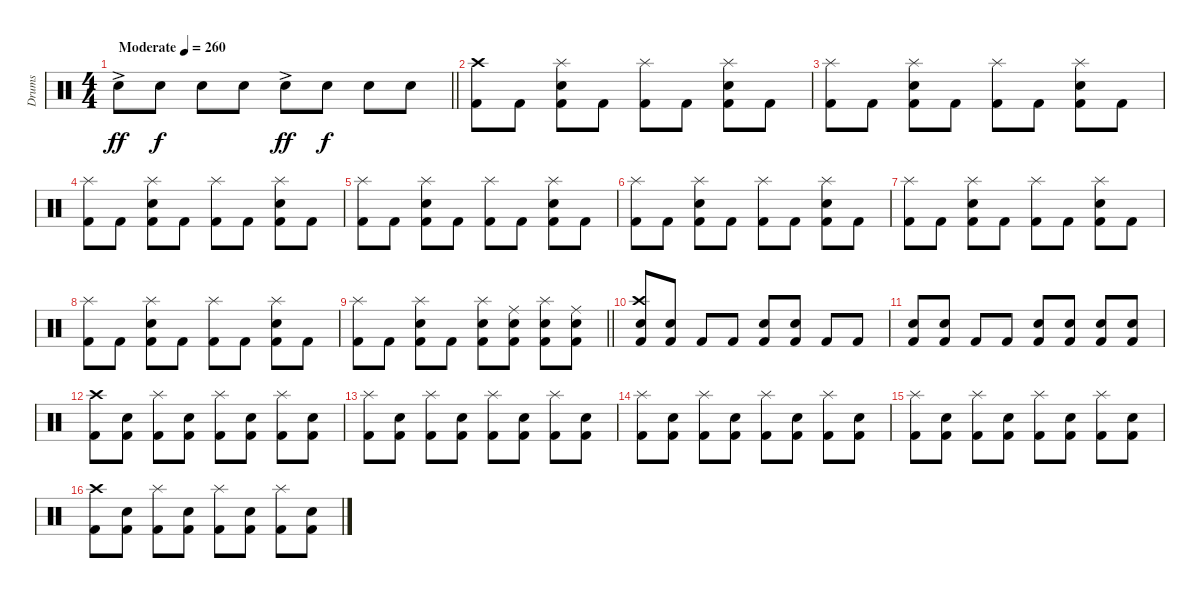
\track ("Drums" "Drums") {instrument percussion}
\staff {score}
\articulation defaults
\ts (4 4)
\tempo (260 "Moderate")
\clef neutral
\barLineRight lightlight
\ks c "Electric Snare (hit)"{ac}.8{dy ff} "Electric Snare (hit)".8{dy f} "Electric Snare (hit)".8 "Electric Snare (hit)".8 "Electric Snare (hit)"{ac}.8{dy ff} "Electric Snare (hit)".8{dy f} "Electric Snare (hit)".8 "Electric Snare (hit)".8
|
("Crash high (hit)" "Kick (hit) 2").8 "Kick (hit) 2".8 ("Splash (hit)" "Electric Snare (hit)" "Kick (hit) 2").8 "Kick (hit) 2".8 ("Splash (hit)" "Kick (hit) 2").8 "Kick (hit) 2".8 ("Splash (hit)" "Electric Snare (hit)" "Kick (hit) 2").8 "Kick (hit) 2".8 |
("Splash (hit)" "Kick (hit) 2").8 "Kick (hit) 2".8 ("Splash (hit)" "Electric Snare (hit)" "Kick (hit) 2").8 "Kick (hit) 2".8 ("Splash (hit)" "Kick (hit) 2").8 "Kick (hit) 2".8 ("Splash (hit)" "Electric Snare (hit)" "Kick (hit) 2").8 "Kick (hit) 2".8 |
("Splash (hit)" "Kick (hit) 2").8 "Kick (hit) 2".8 ("Splash (hit)" "Electric Snare (hit)" "Kick (hit) 2").8 "Kick (hit) 2".8 ("Splash (hit)" "Kick (hit) 2").8 "Kick (hit) 2".8 ("Splash (hit)" "Electric Snare (hit)" "Kick (hit) 2").8 "Kick (hit) 2".8 |
("Splash (hit)" "Kick (hit) 2").8 "Kick (hit) 2".8 ("Splash (hit)" "Electric Snare (hit)" "Kick (hit) 2").8 "Kick (hit) 2".8 ("Splash (hit)" "Kick (hit) 2").8 "Kick (hit) 2".8 ("Splash (hit)" "Electric Snare (hit)" "Kick (hit) 2").8 "Kick (hit) 2".8 |
("Splash (hit)" "Kick (hit) 2").8 "Kick (hit) 2".8 ("Splash (hit)" "Electric Snare (hit)" "Kick (hit) 2").8 "Kick (hit) 2".8 ("Splash (hit)" "Kick (hit) 2").8 "Kick (hit) 2".8 ("Splash (hit)" "Electric Snare (hit)" "Kick (hit) 2").8 "Kick (hit) 2".8 |
("Splash (hit)" "Kick (hit) 2").8 "Kick (hit) 2".8 ("Splash (hit)" "Electric Snare (hit)" "Kick (hit) 2").8 "Kick (hit) 2".8 ("Splash (hit)" "Kick (hit) 2").8 "Kick (hit) 2".8 ("Splash (hit)" "Electric Snare (hit)" "Kick (hit) 2").8 "Kick (hit) 2".8 |
("Splash (hit)" "Kick (hit) 2").8 "Kick (hit) 2".8 ("Splash (hit)" "Electric Snare (hit)" "Kick (hit) 2").8 "Kick (hit) 2".8 ("Splash (hit)" "Kick (hit) 2").8 "Kick (hit) 2".8 ("Splash (hit)" "Electric Snare (hit)" "Kick (hit) 2").8 "Kick (hit) 2".8 |
\barLineRight lightlight
("Splash (hit)" "Kick (hit) 2").8 "Kick (hit) 2".8 ("Splash (hit)" "Electric Snare (hit)" "Kick (hit) 2").8 "Kick (hit) 2".8 ("Splash (hit)" "Electric Snare (hit)" "Kick (hit) 2").8 ("Ride (middle)" "Electric Snare (hit)" "Kick (hit) 2").8 ("Splash (hit)" "Electric Snare (hit)" "Kick (hit) 2").8 ("Ride (middle)" "Electric Snare (hit)" "Kick (hit) 2").8 |
("Crash high (hit)" "Electric Snare (hit)" "Kick (hit) 2").8 ("Electric Snare (hit)" "Kick (hit) 2").8 "Kick (hit) 2".8 "Kick (hit) 2".8 ("Electric Snare (hit)" "Kick (hit) 2").8 ("Electric Snare (hit)" "Kick (hit) 2").8 "Kick (hit) 2".8 "Kick (hit) 2".8 |
("Electric Snare (hit)" "Kick (hit) 2").8 ("Electric Snare (hit)" "Kick (hit) 2").8 "Kick (hit) 2".8 "Kick (hit) 2".8 ("Electric Snare (hit)" "Kick (hit) 2").8 ("Electric Snare (hit)" "Kick (hit) 2").8 ("Electric Snare (hit)" "Kick (hit) 2").8 ("Electric Snare (hit)" "Kick (hit) 2").8 |
("Crash high (hit)" "Kick (hit) 2").8 ("Electric Snare (hit)" "Kick (hit) 2").8 ("Splash (hit)" "Kick (hit) 2").8 ("Electric Snare (hit)" "Kick (hit) 2").8 ("Splash (hit)" "Kick (hit) 2").8 ("Electric Snare (hit)" "Kick (hit) 2").8 ("Splash (hit)" "Kick (hit) 2").8 ("Electric Snare (hit)" "Kick (hit) 2").8 |
("Splash (hit)" "Kick (hit) 2").8 ("Electric Snare (hit)" "Kick (hit) 2").8 ("Splash (hit)" "Kick (hit) 2").8 ("Electric Snare (hit)" "Kick (hit) 2").8 ("Splash (hit)" "Kick (hit) 2").8 ("Electric Snare (hit)" "Kick (hit) 2").8 ("Splash (hit)" "Kick (hit) 2").8 ("Electric Snare (hit)" "Kick (hit) 2").8 |
("Splash (hit)" "Kick (hit) 2").8 ("Electric Snare (hit)" "Kick (hit) 2").8 ("Splash (hit)" "Kick (hit) 2").8 ("Electric Snare (hit)" "Kick (hit) 2").8 ("Splash (hit)" "Kick (hit) 2").8 ("Electric Snare (hit)" "Kick (hit) 2").8 ("Splash (hit)" "Kick (hit) 2").8 ("Electric Snare (hit)" "Kick (hit) 2").8 |
("Splash (hit)" "Kick (hit) 2").8 ("Electric Snare (hit)" "Kick (hit) 2").8 ("Splash (hit)" "Kick (hit) 2").8 ("Electric Snare (hit)" "Kick (hit) 2").8 ("Splash (hit)" "Kick (hit) 2").8 ("Electric Snare (hit)" "Kick (hit) 2").8 ("Splash (hit)" "Kick (hit) 2").8 ("Electric Snare (hit)" "Kick (hit) 2").8 |
("Crash high (hit)" "Kick (hit) 2").8 ("Electric Snare (hit)" "Kick (hit) 2").8 ("Splash (hit)" "Kick (hit) 2").8 ("Electric Snare (hit)" "Kick (hit) 2").8 ("Splash (hit)" "Kick (hit) 2").8 ("Electric Snare (hit)" "Kick (hit) 2").8 ("Splash (hit)" "Kick (hit) 2").8 ("Electric Snare (hit)" "Kick (hit) 2").8
